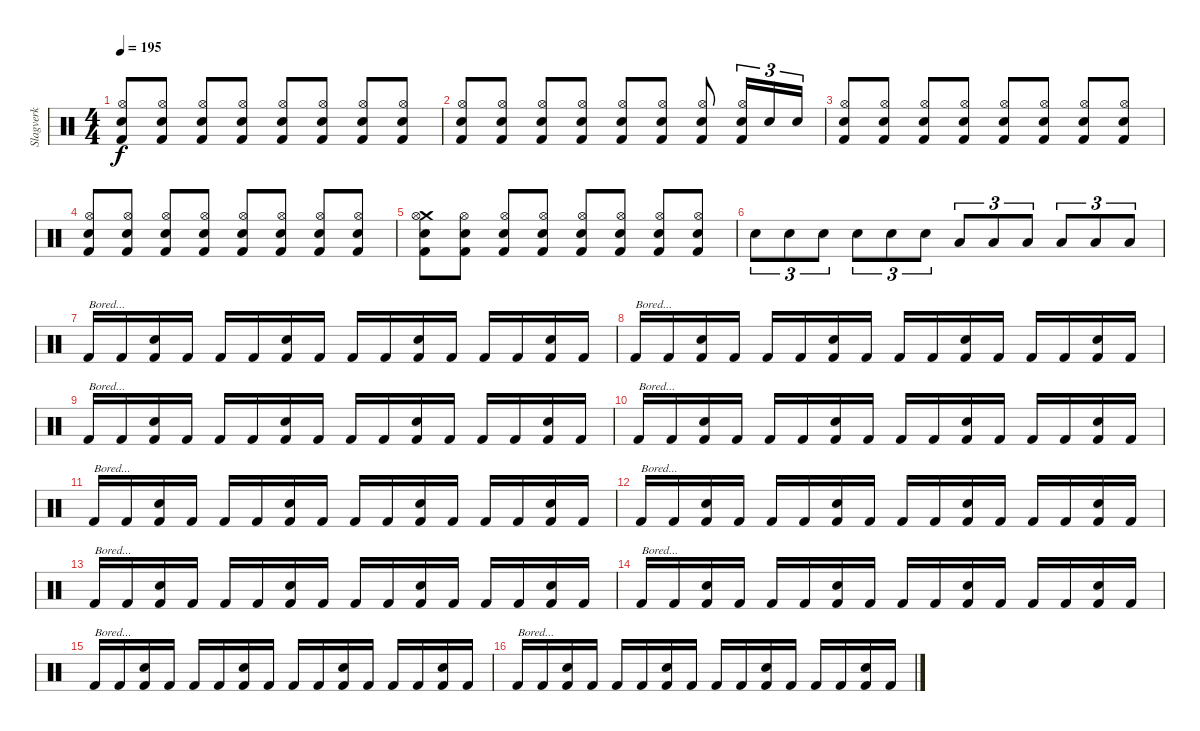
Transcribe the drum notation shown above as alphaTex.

\track ("Slagverk" "Slagverk") {instrument percussion}
\staff {score}
\articulation defaults
\ts (4 4)
\tempo 195
\clef neutral
\ks c
("Electric Snare (hit)" "Hi-Hat (open)" "Kick (hit) 2").8{dy f} ("Electric Snare (hit)" "Hi-Hat (open)" "Kick (hit) 2").8 ("Electric Snare (hit)" "Hi-Hat (open)" "Kick (hit) 2").8 ("Electric Snare (hit)" "Hi-Hat (open)" "Kick (hit) 2").8 ("Electric Snare (hit)" "Hi-Hat (open)" "Kick (hit) 2").8 ("Electric Snare (hit)" "Hi-Hat (open)" "Kick (hit) 2").8 ("Electric Snare (hit)" "Hi-Hat (open)" "Kick (hit) 2").8 ("Electric Snare (hit)" "Hi-Hat (open)" "Kick (hit) 2").8 |
("Electric Snare (hit)" "Hi-Hat (open)" "Kick (hit) 2").8 ("Electric Snare (hit)" "Hi-Hat (open)" "Kick (hit) 2").8 ("Electric Snare (hit)" "Hi-Hat (open)" "Kick (hit) 2").8 ("Electric Snare (hit)" "Hi-Hat (open)" "Kick (hit) 2").8 ("Electric Snare (hit)" "Hi-Hat (open)" "Kick (hit) 2").8 ("Electric Snare (hit)" "Hi-Hat (open)" "Kick (hit) 2").8 ("Electric Snare (hit)" "Hi-Hat (open)" "Kick (hit) 2").8 ("Electric Snare (hit)" "Hi-Hat (open)" "Kick (hit) 2").16{tu (3 2)} "Electric Snare (hit)".16{tu (3 2)} "Electric Snare (hit)".16{tu (3 2)} |
("Electric Snare (hit)" "Hi-Hat (open)" "Kick (hit) 2").8 ("Electric Snare (hit)" "Hi-Hat (open)" "Kick (hit) 2").8 ("Electric Snare (hit)" "Hi-Hat (open)" "Kick (hit) 2").8 ("Electric Snare (hit)" "Hi-Hat (open)" "Kick (hit) 2").8 ("Electric Snare (hit)" "Hi-Hat (open)" "Kick (hit) 2").8 ("Electric Snare (hit)" "Hi-Hat (open)" "Kick (hit) 2").8 ("Electric Snare (hit)" "Hi-Hat (open)" "Kick (hit) 2").8 ("Electric Snare (hit)" "Hi-Hat (open)" "Kick (hit) 2").8 |
("Electric Snare (hit)" "Hi-Hat (open)" "Kick (hit) 2").8 ("Electric Snare (hit)" "Hi-Hat (open)" "Kick (hit) 2").8 ("Electric Snare (hit)" "Hi-Hat (open)" "Kick (hit) 2").8 ("Electric Snare (hit)" "Hi-Hat (open)" "Kick (hit) 2").8 ("Electric Snare (hit)" "Hi-Hat (open)" "Kick (hit) 2").8 ("Electric Snare (hit)" "Hi-Hat (open)" "Kick (hit) 2").8 ("Electric Snare (hit)" "Hi-Hat (open)" "Kick (hit) 2").8 ("Electric Snare (hit)" "Hi-Hat (open)" "Kick (hit) 2").8 |
("Crash medium (hit)" "Electric Snare (hit)" "Hi-Hat (open)" "Kick (hit) 2").8 ("Electric Snare (hit)" "Hi-Hat (open)" "Kick (hit) 2").8 ("Electric Snare (hit)" "Hi-Hat (open)" "Kick (hit) 2").8 ("Electric Snare (hit)" "Hi-Hat (open)" "Kick (hit) 2").8 ("Electric Snare (hit)" "Hi-Hat (open)" "Kick (hit) 2").8 ("Electric Snare (hit)" "Hi-Hat (open)" "Kick (hit) 2").8 ("Electric Snare (hit)" "Hi-Hat (open)" "Kick (hit) 2").8 ("Electric Snare (hit)" "Hi-Hat (open)" "Kick (hit) 2").8 |
"Electric Snare (hit)".8{tu (3 2)} "Electric Snare (hit)".8{tu (3 2)} "Electric Snare (hit)".8{tu (3 2)} "Electric Snare (hit)".8{tu (3 2)} "Electric Snare (hit)".8{tu (3 2)} "Electric Snare (hit)".8{tu (3 2)} "Low Tom (hit)".8{tu (3 2)} "Low Tom (hit)".8{tu (3 2)} "Low Tom (hit)".8{tu (3 2)} "Low Floor Tom (hit)".8{tu (3 2)} "Low Floor Tom (hit)".8{tu (3 2)} "Low Floor Tom (hit)".8{tu (3 2)} |
"Kick (hit) 2".16{txt "Bored..."} "Kick (hit) 2".16 ("Electric Snare (hit)" "Kick (hit) 2").16 "Kick (hit) 2".16 "Kick (hit) 2".16 "Kick (hit) 2".16 ("Electric Snare (hit)" "Kick (hit) 2").16 "Kick (hit) 2".16 "Kick (hit) 2".16 "Kick (hit) 2".16 ("Electric Snare (hit)" "Kick (hit) 2").16 "Kick (hit) 2".16 "Kick (hit) 2".16 "Kick (hit) 2".16 ("Electric Snare (hit)" "Kick (hit) 2").16 "Kick (hit) 2".16 |
"Kick (hit) 2".16{txt "Bored..."} "Kick (hit) 2".16 ("Electric Snare (hit)" "Kick (hit) 2").16 "Kick (hit) 2".16 "Kick (hit) 2".16 "Kick (hit) 2".16 ("Electric Snare (hit)" "Kick (hit) 2").16 "Kick (hit) 2".16 "Kick (hit) 2".16 "Kick (hit) 2".16 ("Electric Snare (hit)" "Kick (hit) 2").16 "Kick (hit) 2".16 "Kick (hit) 2".16 "Kick (hit) 2".16 ("Electric Snare (hit)" "Kick (hit) 2").16 "Kick (hit) 2".16 |
"Kick (hit) 2".16{txt "Bored..."} "Kick (hit) 2".16 ("Electric Snare (hit)" "Kick (hit) 2").16 "Kick (hit) 2".16 "Kick (hit) 2".16 "Kick (hit) 2".16 ("Electric Snare (hit)" "Kick (hit) 2").16 "Kick (hit) 2".16 "Kick (hit) 2".16 "Kick (hit) 2".16 ("Electric Snare (hit)" "Kick (hit) 2").16 "Kick (hit) 2".16 "Kick (hit) 2".16 "Kick (hit) 2".16 ("Electric Snare (hit)" "Kick (hit) 2").16 "Kick (hit) 2".16 |
"Kick (hit) 2".16{txt "Bored..."} "Kick (hit) 2".16 ("Electric Snare (hit)" "Kick (hit) 2").16 "Kick (hit) 2".16 "Kick (hit) 2".16 "Kick (hit) 2".16 ("Electric Snare (hit)" "Kick (hit) 2").16 "Kick (hit) 2".16 "Kick (hit) 2".16 "Kick (hit) 2".16 ("Electric Snare (hit)" "Kick (hit) 2").16 "Kick (hit) 2".16 "Kick (hit) 2".16 "Kick (hit) 2".16 ("Electric Snare (hit)" "Kick (hit) 2").16 "Kick (hit) 2".16 |
"Kick (hit) 2".16{txt "Bored..."} "Kick (hit) 2".16 ("Electric Snare (hit)" "Kick (hit) 2").16 "Kick (hit) 2".16 "Kick (hit) 2".16 "Kick (hit) 2".16 ("Electric Snare (hit)" "Kick (hit) 2").16 "Kick (hit) 2".16 "Kick (hit) 2".16 "Kick (hit) 2".16 ("Electric Snare (hit)" "Kick (hit) 2").16 "Kick (hit) 2".16 "Kick (hit) 2".16 "Kick (hit) 2".16 ("Electric Snare (hit)" "Kick (hit) 2").16 "Kick (hit) 2".16 |
"Kick (hit) 2".16{txt "Bored..."} "Kick (hit) 2".16 ("Electric Snare (hit)" "Kick (hit) 2").16 "Kick (hit) 2".16 "Kick (hit) 2".16 "Kick (hit) 2".16 ("Electric Snare (hit)" "Kick (hit) 2").16 "Kick (hit) 2".16 "Kick (hit) 2".16 "Kick (hit) 2".16 ("Electric Snare (hit)" "Kick (hit) 2").16 "Kick (hit) 2".16 "Kick (hit) 2".16 "Kick (hit) 2".16 ("Electric Snare (hit)" "Kick (hit) 2").16 "Kick (hit) 2".16 |
"Kick (hit) 2".16{txt "Bored..."} "Kick (hit) 2".16 ("Electric Snare (hit)" "Kick (hit) 2").16 "Kick (hit) 2".16 "Kick (hit) 2".16 "Kick (hit) 2".16 ("Electric Snare (hit)" "Kick (hit) 2").16 "Kick (hit) 2".16 "Kick (hit) 2".16 "Kick (hit) 2".16 ("Electric Snare (hit)" "Kick (hit) 2").16 "Kick (hit) 2".16 "Kick (hit) 2".16 "Kick (hit) 2".16 ("Electric Snare (hit)" "Kick (hit) 2").16 "Kick (hit) 2".16 |
"Kick (hit) 2".16{txt "Bored..."} "Kick (hit) 2".16 ("Electric Snare (hit)" "Kick (hit) 2").16 "Kick (hit) 2".16 "Kick (hit) 2".16 "Kick (hit) 2".16 ("Electric Snare (hit)" "Kick (hit) 2").16 "Kick (hit) 2".16 "Kick (hit) 2".16 "Kick (hit) 2".16 ("Electric Snare (hit)" "Kick (hit) 2").16 "Kick (hit) 2".16 "Kick (hit) 2".16 "Kick (hit) 2".16 ("Electric Snare (hit)" "Kick (hit) 2").16 "Kick (hit) 2".16 |
"Kick (hit) 2".16{txt "Bored..."} "Kick (hit) 2".16 ("Electric Snare (hit)" "Kick (hit) 2").16 "Kick (hit) 2".16 "Kick (hit) 2".16 "Kick (hit) 2".16 ("Electric Snare (hit)" "Kick (hit) 2").16 "Kick (hit) 2".16 "Kick (hit) 2".16 "Kick (hit) 2".16 ("Electric Snare (hit)" "Kick (hit) 2").16 "Kick (hit) 2".16 "Kick (hit) 2".16 "Kick (hit) 2".16 ("Electric Snare (hit)" "Kick (hit) 2").16 "Kick (hit) 2".16 |
"Kick (hit) 2".16{txt "Bored..."} "Kick (hit) 2".16 ("Electric Snare (hit)" "Kick (hit) 2").16 "Kick (hit) 2".16 "Kick (hit) 2".16 "Kick (hit) 2".16 ("Electric Snare (hit)" "Kick (hit) 2").16 "Kick (hit) 2".16 "Kick (hit) 2".16 "Kick (hit) 2".16 ("Electric Snare (hit)" "Kick (hit) 2").16 "Kick (hit) 2".16 "Kick (hit) 2".16 "Kick (hit) 2".16 ("Electric Snare (hit)" "Kick (hit) 2").16 "Kick (hit) 2".16
